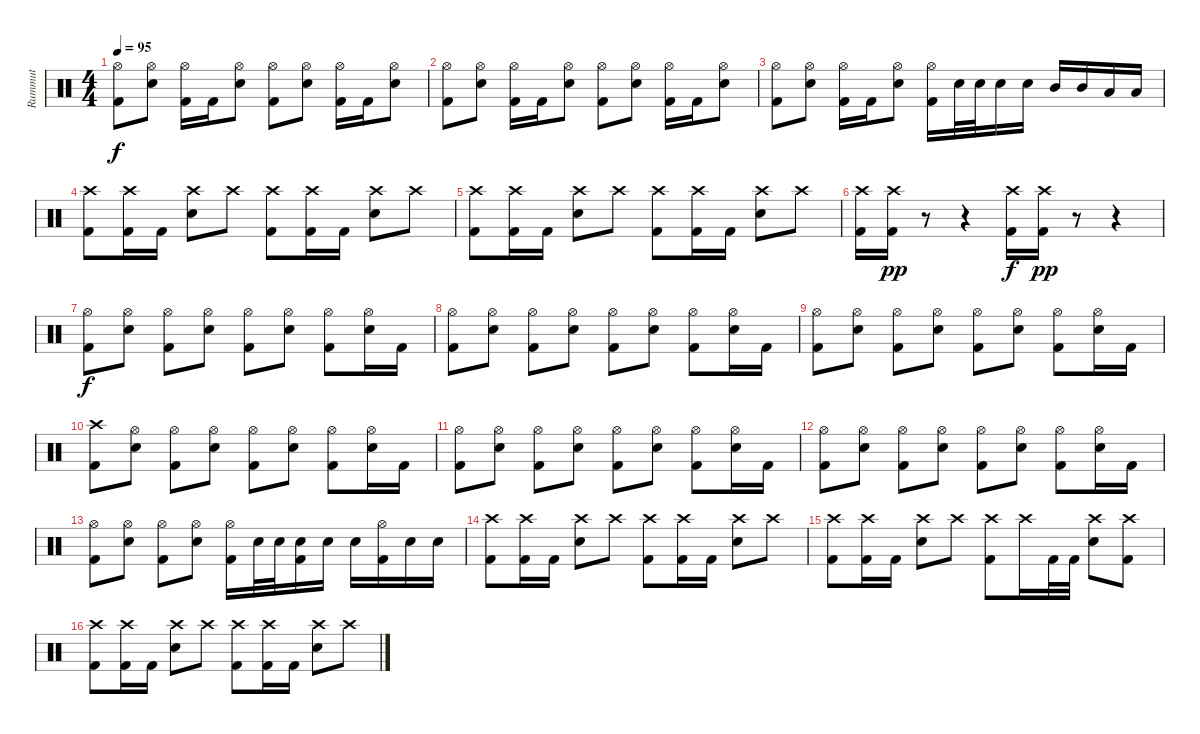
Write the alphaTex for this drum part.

\track ("Rummut" "Rummut") {instrument percussion}
\staff {score}
\articulation defaults
\ts (4 4)
\tempo 95
\clef neutral
\ks c
("Hi-Hat (open)" "Kick (hit) 2").8{dy f} ("Hi-Hat (open)" "Snare (hit) 2").8 ("Hi-Hat (open)" "Kick (hit) 2").16 "Kick (hit) 2".16 ("Hi-Hat (open)" "Snare (hit) 2").8 ("Hi-Hat (open)" "Kick (hit) 2").8 ("Hi-Hat (open)" "Snare (hit) 2").8 ("Hi-Hat (open)" "Kick (hit) 2").16 "Kick (hit) 2".16 ("Hi-Hat (open)" "Snare (hit) 2").8 |
("Hi-Hat (open)" "Kick (hit) 2").8 ("Hi-Hat (open)" "Snare (hit) 2").8 ("Hi-Hat (open)" "Kick (hit) 2").16 "Kick (hit) 2".16 ("Hi-Hat (open)" "Snare (hit) 2").8 ("Hi-Hat (open)" "Kick (hit) 2").8 ("Hi-Hat (open)" "Snare (hit) 2").8 ("Hi-Hat (open)" "Kick (hit) 2").16 "Kick (hit) 2".16 ("Hi-Hat (open)" "Snare (hit) 2").8 |
("Hi-Hat (open)" "Kick (hit) 2").8 ("Hi-Hat (open)" "Snare (hit) 2").8 ("Hi-Hat (open)" "Kick (hit) 2").16 "Kick (hit) 2".16 ("Hi-Hat (open)" "Snare (hit) 2").8 ("Hi-Hat (open)" "Kick (hit) 2").16 "Snare (hit) 2".32 "Snare (hit) 2".32 "Snare (hit) 2".16 "Snare (hit) 2".16 "Mid Tom (hit)".16 "Mid Tom (hit)".16 "Low Tom (hit)".16 "Low Tom (hit)".16 |
("Crash high (hit)" "Kick (hit) 2").8 ("Crash high (hit)" "Kick (hit) 2").16 "Kick (hit) 2".16 ("Crash high (hit)" "Snare (hit) 2").8 "Crash high (hit)".8 ("Crash high (hit)" "Kick (hit) 2").8 ("Crash high (hit)" "Kick (hit) 2").16 "Kick (hit) 2".16 ("Crash high (hit)" "Snare (hit) 2").8 "Crash high (hit)".8 |
("Crash high (hit)" "Kick (hit) 2").8 ("Crash high (hit)" "Kick (hit) 2").16 "Kick (hit) 2".16 ("Crash high (hit)" "Snare (hit) 2").8 "Crash high (hit)".8 ("Crash high (hit)" "Kick (hit) 2").8 ("Crash high (hit)" "Kick (hit) 2").16 "Kick (hit) 2".16 ("Crash high (hit)" "Snare (hit) 2").8 "Crash high (hit)".8 |
("Crash high (hit)" "Kick (hit) 2").16 ("Crash high (hit)" "Kick (hit) 2").16{dy pp} r.8 r.4 ("Crash high (hit)" "Kick (hit) 2").16{dy f} ("Crash high (hit)" "Kick (hit) 2").16{dy pp} r.8 r.4 |
("Hi-Hat (open)" "Kick (hit) 2").8{dy f} ("Hi-Hat (open)" "Snare (hit) 2").8 ("Hi-Hat (open)" "Kick (hit) 2").8 ("Hi-Hat (open)" "Snare (hit) 2").8 ("Hi-Hat (open)" "Kick (hit) 2").8 ("Hi-Hat (open)" "Snare (hit) 2").8 ("Hi-Hat (open)" "Kick (hit) 2").8 ("Hi-Hat (open)" "Snare (hit) 2").16 "Kick (hit) 2".16 |
("Hi-Hat (open)" "Kick (hit) 2").8 ("Hi-Hat (open)" "Snare (hit) 2").8 ("Hi-Hat (open)" "Kick (hit) 2").8 ("Hi-Hat (open)" "Snare (hit) 2").8 ("Hi-Hat (open)" "Kick (hit) 2").8 ("Hi-Hat (open)" "Snare (hit) 2").8 ("Hi-Hat (open)" "Kick (hit) 2").8 ("Hi-Hat (open)" "Snare (hit) 2").16 "Kick (hit) 2".16 |
("Hi-Hat (open)" "Kick (hit) 2").8 ("Hi-Hat (open)" "Snare (hit) 2").8 ("Hi-Hat (open)" "Kick (hit) 2").8 ("Hi-Hat (open)" "Snare (hit) 2").8 ("Hi-Hat (open)" "Kick (hit) 2").8 ("Hi-Hat (open)" "Snare (hit) 2").8 ("Hi-Hat (open)" "Kick (hit) 2").8 ("Hi-Hat (open)" "Snare (hit) 2").16 "Kick (hit) 2".16 |
("Crash high (hit)" "Kick (hit) 2").8 ("Hi-Hat (open)" "Snare (hit) 2").8 ("Hi-Hat (open)" "Kick (hit) 2").8 ("Hi-Hat (open)" "Snare (hit) 2").8 ("Hi-Hat (open)" "Kick (hit) 2").8 ("Hi-Hat (open)" "Snare (hit) 2").8 ("Hi-Hat (open)" "Kick (hit) 2").8 ("Hi-Hat (open)" "Snare (hit) 2").16 "Kick (hit) 2".16 |
("Hi-Hat (open)" "Kick (hit) 2").8 ("Hi-Hat (open)" "Snare (hit) 2").8 ("Hi-Hat (open)" "Kick (hit) 2").8 ("Hi-Hat (open)" "Snare (hit) 2").8 ("Hi-Hat (open)" "Kick (hit) 2").8 ("Hi-Hat (open)" "Snare (hit) 2").8 ("Hi-Hat (open)" "Kick (hit) 2").8 ("Hi-Hat (open)" "Snare (hit) 2").16 "Kick (hit) 2".16 |
("Hi-Hat (open)" "Kick (hit) 2").8 ("Hi-Hat (open)" "Snare (hit) 2").8 ("Hi-Hat (open)" "Kick (hit) 2").8 ("Hi-Hat (open)" "Snare (hit) 2").8 ("Hi-Hat (open)" "Kick (hit) 2").8 ("Hi-Hat (open)" "Snare (hit) 2").8 ("Hi-Hat (open)" "Kick (hit) 2").8 ("Hi-Hat (open)" "Snare (hit) 2").16 "Kick (hit) 2".16 |
("Hi-Hat (open)" "Kick (hit) 2").8 ("Hi-Hat (open)" "Snare (hit) 2").8 ("Hi-Hat (open)" "Kick (hit) 2").8 ("Hi-Hat (open)" "Snare (hit) 2").8 ("Hi-Hat (open)" "Kick (hit) 2").16 "Snare (hit) 2".32 "Snare (hit) 2".32 ("Snare (hit) 2" "Kick (hit) 2").16 "Snare (hit) 2".16 "Snare (hit) 2".16 ("Hi-Hat (open)" "Kick (hit) 2").16 "Snare (hit) 2".16 "Snare (hit) 2".16 |
("Crash high (hit)" "Kick (hit) 2").8 ("Crash high (hit)" "Kick (hit) 2").16 "Kick (hit) 2".16 ("Crash high (hit)" "Snare (hit) 2").8 "Crash high (hit)".8 ("Crash high (hit)" "Kick (hit) 2").8 ("Crash high (hit)" "Kick (hit) 2").16 "Kick (hit) 2".16 ("Crash high (hit)" "Snare (hit) 2").8 "Crash high (hit)".8 |
("Crash high (hit)" "Kick (hit) 2").8 ("Crash high (hit)" "Kick (hit) 2").16 "Kick (hit) 2".16 ("Crash high (hit)" "Snare (hit) 2").8 "Crash high (hit)".8 ("Crash high (hit)" "Kick (hit) 2").8 "Crash high (hit)".16 "Kick (hit) 2".32 "Kick (hit) 2".32 ("Crash high (hit)" "Snare (hit) 2").8 ("Crash high (hit)" "Kick (hit) 2").8 |
("Crash high (hit)" "Kick (hit) 2").8 ("Crash high (hit)" "Kick (hit) 2").16 "Kick (hit) 2".16 ("Crash high (hit)" "Snare (hit) 2").8 "Crash high (hit)".8 ("Crash high (hit)" "Kick (hit) 2").8 ("Crash high (hit)" "Kick (hit) 2").16 "Kick (hit) 2".16 ("Crash high (hit)" "Snare (hit) 2").8 "Crash high (hit)".8
